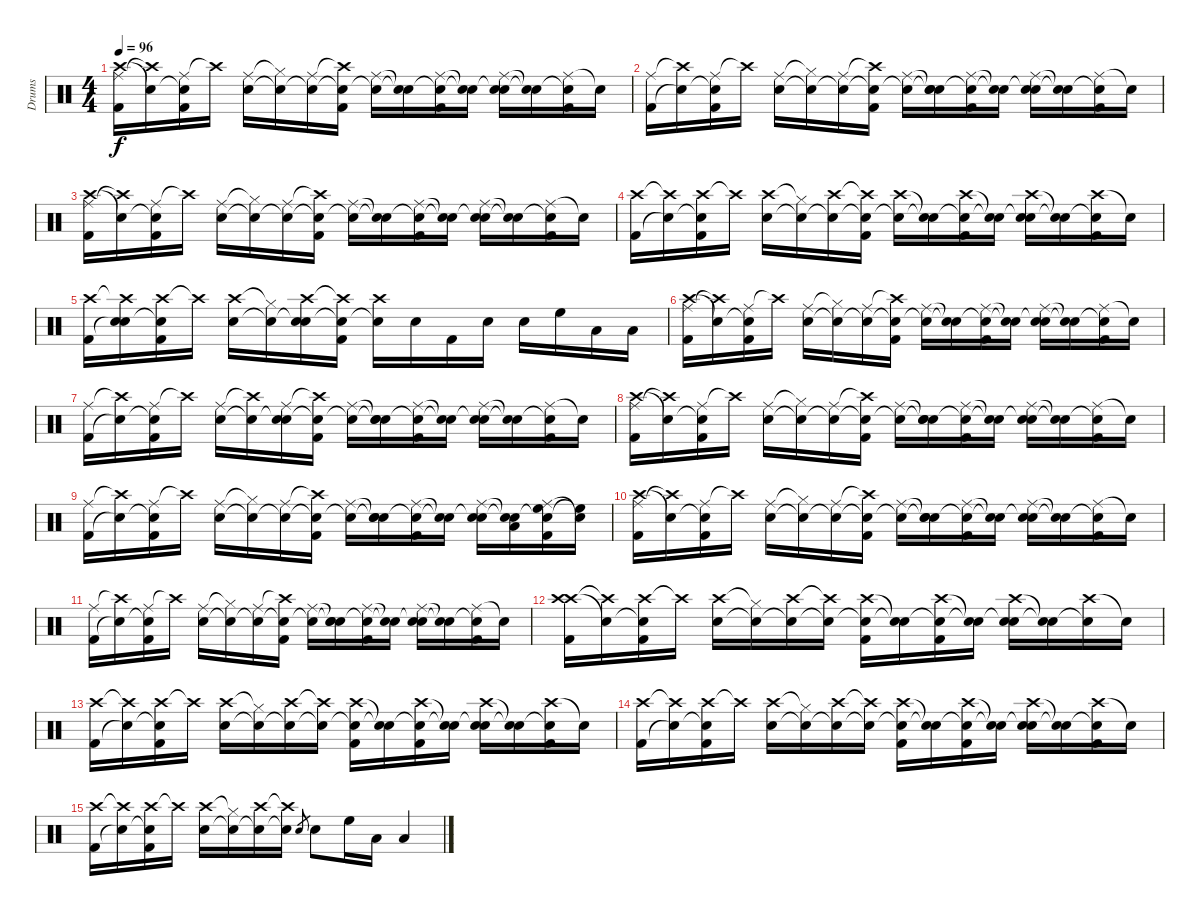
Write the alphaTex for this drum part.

\track ("Drums" "Drums") {instrument percussion}
\staff {score}
\articulation defaults
\ts (4 4)
\tempo 96
\clef neutral
\ks aminor
("Ride (middle)" "Crash high (hit)" "Kick (hit) 2").16{dy f} ("Crash high (hit)"{t} "Snare (hit)"{t}).16 ("Ride (middle)" "Snare (hit)"{t} "Kick (hit) 2").16 "Crash high (hit)"{t}.16 ("Ride (middle)" "Snare (hit) 2").16 ("Hi-Hat (closed)"{t} "Snare (hit)"{t}).16 ("Ride (middle)" "Snare (hit)"{t}).16 ("Crash high (hit)"{t} "Snare (hit)"{t} "Kick (hit) 2").16 ("Ride (middle)" "Snare (hit)"{t}).16 ("Snare (hit)"{t} "Snare (hit)"{t}).16 ("Ride (middle)" "Snare (hit)"{t} "Kick (hit) 2").16 ("Snare (hit)"{t} "Snare (hit)"{t}).16 ("Ride (middle)" "Snare (hit)"{t} "Snare (hit) 2").16 ("Snare (hit)"{t} "Snare (hit)"{t}).16 ("Ride (middle)" "Snare (hit)"{t} "Kick (hit) 2").16 "Snare (hit)"{t}.16 |
("Ride (middle)" "Kick (hit) 2").16 ("Crash high (hit)"{t} "Snare (hit)"{t}).16 ("Ride (middle)" "Snare (hit)"{t} "Kick (hit) 2").16 "Crash high (hit)"{t}.16 ("Ride (middle)" "Snare (hit) 2").16 ("Hi-Hat (closed)"{t} "Snare (hit)"{t}).16 ("Ride (middle)" "Snare (hit)"{t}).16 ("Crash high (hit)"{t} "Snare (hit)"{t} "Kick (hit) 2").16 ("Ride (middle)" "Snare (hit)"{t}).16 ("Snare (hit)"{t} "Snare (hit)"{t} "Snare (hit) 2").16 ("Ride (middle)" "Snare (hit)"{t} "Kick (hit) 2").16 ("Snare (hit)"{t} "Snare (hit)"{t}).16 ("Ride (middle)" "Snare (hit)"{t} "Snare (hit) 2").16 ("Snare (hit)"{t} "Snare (hit)"{t}).16 ("Ride (middle)" "Snare (hit)"{t} "Kick (hit) 2").16 "Snare (hit)"{t}.16 |
("Ride (middle)" "Crash high (hit)" "Kick (hit) 2").16 ("Crash high (hit)"{t} "Snare (hit)"{t}).16 ("Ride (middle)" "Snare (hit)"{t} "Kick (hit) 2").16 "Crash high (hit)"{t}.16 ("Ride (middle)" "Snare (hit) 2").16 ("Hi-Hat (closed)"{t} "Snare (hit)"{t}).16 ("Ride (middle)" "Snare (hit)"{t}).16 ("Crash high (hit)"{t} "Snare (hit)"{t} "Kick (hit) 2").16 ("Ride (middle)" "Snare (hit)"{t}).16 ("Snare (hit)"{t} "Snare (hit)"{t}).16 ("Ride (middle)" "Snare (hit)"{t} "Kick (hit) 2").16 ("Snare (hit)"{t} "Snare (hit)"{t}).16 ("Ride (middle)" "Snare (hit)"{t} "Snare (hit) 2").16 ("Snare (hit)"{t} "Snare (hit)"{t}).16 ("Ride (middle)" "Snare (hit)"{t} "Kick (hit) 2").16 "Snare (hit)"{t}.16 |
("Crash high (hit)" "Kick (hit) 2").16 ("Crash high (hit)"{t} "Snare (hit)"{t}).16 ("Crash high (hit)" "Snare (hit)"{t} "Kick (hit) 2").16 "Crash high (hit)"{t}.16 ("Crash high (hit)" "Snare (hit) 2").16 ("Hi-Hat (closed)"{t} "Snare (hit)"{t}).16 ("Crash high (hit)" "Snare (hit)"{t}).16 ("Crash high (hit)"{t} "Snare (hit)"{t} "Kick (hit) 2").16 ("Crash high (hit)" "Snare (hit)"{t}).16 ("Snare (hit)"{t} "Snare (hit)"{t}).16 ("Crash high (hit)" "Snare (hit)"{t} "Kick (hit) 2").16 ("Snare (hit)"{t} "Snare (hit)"{t}).16 ("Crash high (hit)" "Snare (hit)"{t} "Snare (hit) 2").16 ("Snare (hit)"{t} "Snare (hit)"{t}).16 ("Crash high (hit)" "Snare (hit)"{t} "Kick (hit) 2").16 "Snare (hit)"{t}.16 |
("Crash high (hit)" "Kick (hit) 2").16 ("Crash high (hit)"{t} "Snare (hit)"{t} "Snare (hit) 2").16 ("Crash high (hit)" "Snare (hit)"{t} "Kick (hit) 2").16 "Crash high (hit)"{t}.16 ("Crash high (hit)" "Snare (hit) 2").16 ("Hi-Hat (closed)"{t} "Snare (hit)"{t}).16 ("Crash high (hit)" "Snare (hit)"{t} "Snare (hit) 2").16 ("Crash high (hit)"{t} "Snare (hit)"{t} "Kick (hit) 2").16 ("Crash high (hit)" "Snare (hit)"{t}).16 "Snare (hit) 2".16 "Kick (hit) 2".16 "Snare (hit) 2".16 "Snare (hit) 2".16 "High Floor Tom (hit)".16 "Low Floor Tom (hit)".16 "Low Floor Tom (hit)".16 |
("Ride (middle)" "Crash high (hit)" "Kick (hit) 2").16 ("Crash high (hit)"{t} "Snare (hit)"{t}).16 ("Ride (middle)" "Snare (hit)"{t} "Kick (hit) 2").16 "Crash high (hit)"{t}.16 ("Ride (middle)" "Snare (hit) 2").16 ("Hi-Hat (closed)"{t} "Snare (hit)"{t}).16 ("Ride (middle)" "Snare (hit)"{t}).16 ("Crash high (hit)"{t} "Snare (hit)"{t} "Kick (hit) 2").16 ("Ride (middle)" "Snare (hit)"{t}).16 ("Snare (hit)"{t} "Snare (hit)"{t}).16 ("Ride (middle)" "Snare (hit)"{t} "Kick (hit) 2").16 ("Snare (hit)"{t} "Snare (hit)"{t}).16 ("Ride (middle)" "Snare (hit)"{t} "Snare (hit) 2").16 ("Snare (hit)"{t} "Snare (hit)"{t}).16 ("Ride (middle)" "Snare (hit)"{t} "Kick (hit) 2").16 "Snare (hit)"{t}.16 |
("Ride (middle)" "Kick (hit) 2").16 ("Crash high (hit)"{t} "Snare (hit)"{t}).16 ("Ride (middle)" "Snare (hit)"{t} "Kick (hit) 2").16 "Crash high (hit)"{t}.16 ("Ride (middle)" "Snare (hit) 2").16 ("Crash high (hit)"{t} "Snare (hit)"{t}).16 ("Ride (middle)" "Snare (hit)"{t} "Snare (hit) 2").16 ("Crash high (hit)"{t} "Snare (hit)"{t} "Kick (hit) 2").16 ("Ride (middle)" "Snare (hit)"{t}).16 ("Snare (hit)"{t} "Snare (hit)"{t} "Snare (hit) 2").16 ("Ride (middle)" "Snare (hit)"{t} "Kick (hit) 2").16 ("Snare (hit)"{t} "Snare (hit)"{t}).16 ("Ride (middle)" "Snare (hit)"{t} "Snare (hit) 2").16 ("Snare (hit)"{t} "Snare (hit)"{t}).16 ("Ride (middle)" "Snare (hit)"{t} "Kick (hit) 2").16 "Snare (hit)"{t}.16 |
("Ride (middle)" "Crash high (hit)" "Kick (hit) 2").16 ("Crash high (hit)"{t} "Snare (hit)"{t}).16 ("Ride (middle)" "Snare (hit)"{t} "Kick (hit) 2").16 "Crash high (hit)"{t}.16 ("Ride (middle)" "Snare (hit) 2").16 ("Hi-Hat (closed)"{t} "Snare (hit)"{t}).16 ("Ride (middle)" "Snare (hit)"{t}).16 ("Crash high (hit)"{t} "Snare (hit)"{t} "Kick (hit) 2").16 ("Ride (middle)" "Snare (hit)"{t}).16 ("Snare (hit)"{t} "Snare (hit)"{t} "Snare (hit) 2").16 ("Ride (middle)" "Snare (hit)"{t} "Kick (hit) 2").16 ("Snare (hit)"{t} "Snare (hit)"{t}).16 ("Ride (middle)" "Snare (hit)"{t} "Snare (hit) 2").16 ("Snare (hit)"{t} "Snare (hit)"{t}).16 ("Ride (middle)" "Snare (hit)"{t} "Kick (hit) 2").16 "Snare (hit)"{t}.16 |
("Ride (middle)" "Kick (hit) 2").16 ("Crash high (hit)"{t} "Snare (hit)"{t}).16 ("Ride (middle)" "Snare (hit)"{t} "Kick (hit) 2").16 "Crash high (hit)"{t}.16 ("Ride (middle)" "Snare (hit) 2").16 ("Hi-Hat (closed)"{t} "Snare (hit)"{t}).16 ("Ride (middle)" "Snare (hit)"{t}).16 ("Crash high (hit)"{t} "Snare (hit)"{t} "Kick (hit) 2").16 ("Ride (middle)" "Snare (hit)"{t}).16 ("Snare (hit)"{t} "Snare (hit)"{t} "Snare (hit) 2").16 ("Ride (middle)" "Snare (hit)"{t} "Kick (hit) 2").16 ("Snare (hit)"{t} "Snare (hit)"{t}).16 ("Ride (middle)" "Snare (hit)"{t} "Snare (hit) 2").16 ("Snare (hit)"{t} "Snare (hit)"{t} "Low Floor Tom (hit)").16 ("Ride (middle)" "Snare (hit)"{t} "High Floor Tom (hit)" "Kick (hit) 2").16 ("Snare (hit)"{t} "High Floor Tom (hit)"{t}).16 |
("Ride (middle)" "Crash high (hit)" "Kick (hit) 2").16 ("Crash high (hit)"{t} "Snare (hit)"{t}).16 ("Ride (middle)" "Snare (hit)"{t} "Kick (hit) 2").16 "Crash high (hit)"{t}.16 ("Ride (middle)" "Snare (hit) 2").16 ("Hi-Hat (closed)"{t} "Snare (hit)"{t}).16 ("Ride (middle)" "Snare (hit)"{t}).16 ("Crash high (hit)"{t} "Snare (hit)"{t} "Kick (hit) 2").16 ("Ride (middle)" "Snare (hit)"{t}).16 ("Snare (hit)"{t} "Snare (hit)"{t} "Snare (hit) 2").16 ("Ride (middle)" "Snare (hit)"{t} "Kick (hit) 2").16 ("Snare (hit)"{t} "Snare (hit)"{t}).16 ("Ride (middle)" "Snare (hit)"{t} "Snare (hit) 2").16 ("Snare (hit)"{t} "Snare (hit)"{t}).16 ("Ride (middle)" "Snare (hit)"{t} "Kick (hit) 2").16 "Snare (hit)"{t}.16 |
("Ride (middle)" "Kick (hit) 2").16 ("Crash high (hit)"{t} "Snare (hit)"{t}).16 ("Ride (middle)" "Snare (hit)"{t} "Kick (hit) 2").16 "Crash high (hit)"{t}.16 ("Ride (middle)" "Snare (hit) 2").16 ("Hi-Hat (closed)"{t} "Snare (hit)"{t}).16 ("Ride (middle)" "Snare (hit)"{t}).16 ("Crash high (hit)"{t} "Snare (hit)"{t} "Kick (hit) 2").16 ("Ride (middle)" "Snare (hit)"{t}).16 ("Snare (hit)"{t} "Snare (hit)"{t} "Snare (hit) 2").16 ("Ride (middle)" "Snare (hit)"{t} "Kick (hit) 2").16 ("Snare (hit)"{t} "Snare (hit)"{t}).16 ("Ride (middle)" "Snare (hit)"{t} "Snare (hit) 2").16 ("Snare (hit)"{t} "Snare (hit)"{t}).16 ("Ride (middle)" "Snare (hit)"{t} "Kick (hit) 2").16 "Snare (hit)"{t}.16 |
("Crash high (hit)" "Crash high (hit)" "Kick (hit) 2").16 ("Crash high (hit)"{t} "Snare (hit)"{t}).16 ("Crash high (hit)" "Snare (hit)"{t} "Kick (hit) 2").16 "Crash high (hit)"{t}.16 ("Crash high (hit)" "Snare (hit) 2").16 ("Hi-Hat (closed)"{t} "Snare (hit)"{t}).16 ("Crash high (hit)" "Snare (hit)"{t}).16 ("Crash high (hit)"{t} "Snare (hit)"{t}).16 ("Crash high (hit)" "Snare (hit)"{t} "Kick (hit) 2").16 ("Snare (hit)"{t} "Snare (hit)"{t}).16 ("Crash high (hit)" "Snare (hit)"{t} "Kick (hit) 2").16 ("Snare (hit)"{t} "Snare (hit)"{t}).16 ("Crash high (hit)" "Snare (hit)"{t} "Snare (hit) 2").16 ("Snare (hit)"{t} "Snare (hit)"{t}).16 ("Crash high (hit)" "Snare (hit)"{t}).16 "Snare (hit)"{t}.16 |
("Crash high (hit)" "Kick (hit) 2").16 ("Crash high (hit)"{t} "Snare (hit)"{t}).16 ("Crash high (hit)" "Snare (hit)"{t} "Kick (hit) 2").16 "Crash high (hit)"{t}.16 ("Crash high (hit)" "Snare (hit) 2").16 ("Hi-Hat (closed)"{t} "Snare (hit)"{t}).16 ("Crash high (hit)" "Snare (hit)"{t}).16 ("Crash high (hit)"{t} "Snare (hit)"{t}).16 ("Crash high (hit)" "Snare (hit)"{t} "Kick (hit) 2").16 ("Snare (hit)"{t} "Snare (hit)"{t}).16 ("Crash high (hit)" "Snare (hit)"{t} "Kick (hit) 2").16 ("Snare (hit)"{t} "Snare (hit)"{t}).16 ("Crash high (hit)" "Snare (hit)"{t} "Snare (hit) 2").16 ("Snare (hit)"{t} "Snare (hit)"{t}).16 ("Crash high (hit)" "Snare (hit)"{t} "Kick (hit) 2").16 "Snare (hit)"{t}.16 |
("Crash high (hit)" "Kick (hit) 2").16 ("Crash high (hit)"{t} "Snare (hit)"{t}).16 ("Crash high (hit)" "Snare (hit)"{t} "Kick (hit) 2").16 "Crash high (hit)"{t}.16 ("Crash high (hit)" "Snare (hit) 2").16 ("Hi-Hat (closed)"{t} "Snare (hit)"{t}).16 ("Crash high (hit)" "Snare (hit)"{t}).16 ("Crash high (hit)"{t} "Snare (hit)"{t}).16 ("Crash high (hit)" "Snare (hit)"{t} "Kick (hit) 2").16 ("Snare (hit)"{t} "Snare (hit)"{t}).16 ("Crash high (hit)" "Snare (hit)"{t} "Kick (hit) 2").16 ("Snare (hit)"{t} "Snare (hit)"{t}).16 ("Crash high (hit)" "Snare (hit)"{t} "Snare (hit) 2").16 ("Snare (hit)"{t} "Snare (hit)"{t}).16 ("Crash high (hit)" "Snare (hit)"{t} "Kick (hit) 2").16 "Snare (hit)"{t}.16 |
("Crash high (hit)" "Kick (hit) 2").16 ("Crash high (hit)"{t} "Snare (hit)"{t}).16 ("Crash high (hit)" "Snare (hit)"{t} "Kick (hit) 2").16 "Crash high (hit)"{t}.16 ("Crash high (hit)" "Snare (hit) 2").16 ("Hi-Hat (closed)"{t} "Snare (hit)"{t}).16 ("Crash high (hit)" "Snare (hit)"{t}).16 ("Crash high (hit)"{t} "Snare (hit)"{t}).16 "Snare (hit) 2".8{gr} "Snare (hit) 2".8 "High Floor Tom (hit)".16 "Low Tom (hit)".16 "Low Floor Tom (hit)".4
